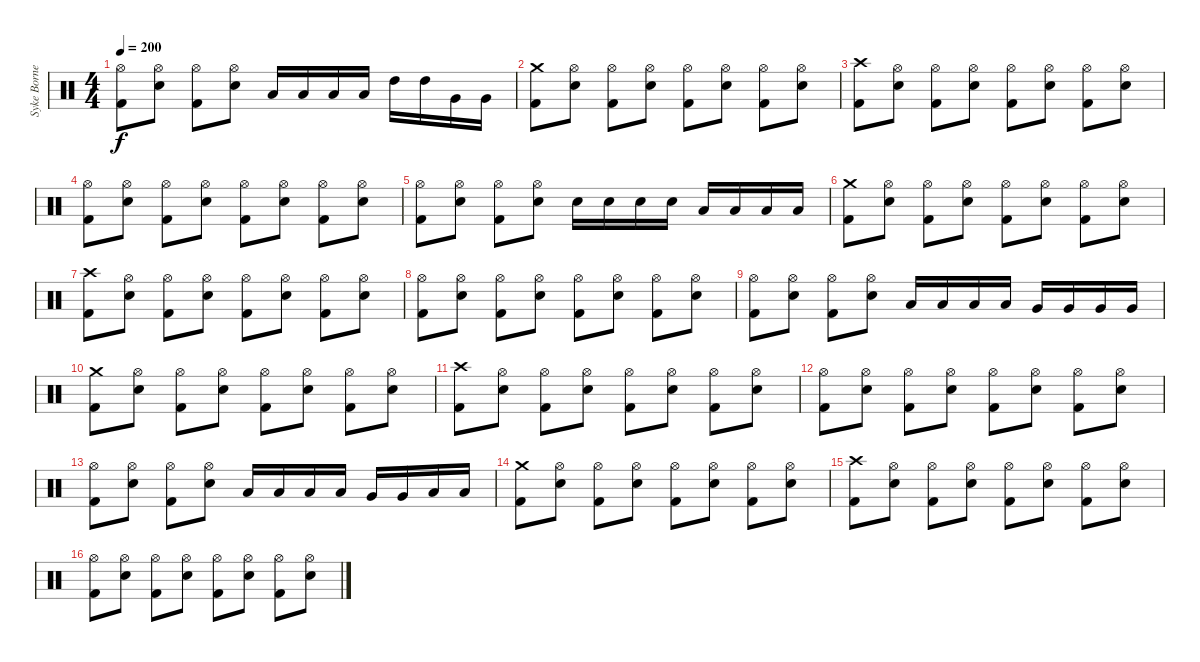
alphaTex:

\track ("Syke Bornetto (Drums)" "Syke Borne") {instrument percussion}
\staff {score}
\articulation defaults
\ts (4 4)
\tempo 200
\clef neutral
\ks c
("Hi-Hat (open)" "Kick (hit) 2").8{dy f} ("Hi-Hat (open)" "Electric Snare (hit)").8 ("Hi-Hat (open)" "Kick (hit) 2").8 ("Hi-Hat (open)" "Electric Snare (hit)").8 "Low Floor Tom (hit)".16 "Low Floor Tom (hit)".16 "Low Tom (hit)".16 "Low Tom (hit)".16 "High Tom (hit)".16 "High Tom (hit)".16 "Very Low Tom (hit)".16 "Very Low Tom (hit)".16 |
("Crash medium (hit)" "Kick (hit) 2").8 ("Hi-Hat (open)" "Electric Snare (hit)").8 ("Hi-Hat (open)" "Kick (hit) 2").8 ("Hi-Hat (open)" "Electric Snare (hit)").8 ("Hi-Hat (open)" "Kick (hit) 2").8 ("Hi-Hat (open)" "Electric Snare (hit)").8 ("Hi-Hat (open)" "Kick (hit) 2").8 ("Hi-Hat (open)" "Electric Snare (hit)").8 |
("Crash high (hit)" "Kick (hit) 2").8 ("Hi-Hat (open)" "Electric Snare (hit)").8 ("Hi-Hat (open)" "Kick (hit) 2").8 ("Hi-Hat (open)" "Electric Snare (hit)").8 ("Hi-Hat (open)" "Kick (hit) 2").8 ("Hi-Hat (open)" "Electric Snare (hit)").8 ("Hi-Hat (open)" "Kick (hit) 2").8 ("Hi-Hat (open)" "Electric Snare (hit)").8 |
("Hi-Hat (open)" "Kick (hit) 2").8 ("Hi-Hat (open)" "Electric Snare (hit)").8 ("Hi-Hat (open)" "Kick (hit) 2").8 ("Hi-Hat (open)" "Electric Snare (hit)").8 ("Hi-Hat (open)" "Kick (hit) 2").8 ("Hi-Hat (open)" "Electric Snare (hit)").8 ("Hi-Hat (open)" "Kick (hit) 2").8 ("Hi-Hat (open)" "Electric Snare (hit)").8 |
("Hi-Hat (open)" "Kick (hit) 2").8 ("Hi-Hat (open)" "Electric Snare (hit)").8 ("Hi-Hat (open)" "Kick (hit) 2").8 ("Hi-Hat (open)" "Electric Snare (hit)").8 "Electric Snare (hit)".16 "Electric Snare (hit)".16 "Electric Snare (hit)".16 "Electric Snare (hit)".16 "Low Floor Tom (hit)".16 "Low Floor Tom (hit)".16 "Low Floor Tom (hit)".16 "Low Floor Tom (hit)".16 |
("Crash medium (hit)" "Kick (hit) 2").8 ("Hi-Hat (open)" "Electric Snare (hit)").8 ("Hi-Hat (open)" "Kick (hit) 2").8 ("Hi-Hat (open)" "Electric Snare (hit)").8 ("Hi-Hat (open)" "Kick (hit) 2").8 ("Hi-Hat (open)" "Electric Snare (hit)").8 ("Hi-Hat (open)" "Kick (hit) 2").8 ("Hi-Hat (open)" "Electric Snare (hit)").8 |
("Crash high (hit)" "Kick (hit) 2").8 ("Hi-Hat (open)" "Electric Snare (hit)").8 ("Hi-Hat (open)" "Kick (hit) 2").8 ("Hi-Hat (open)" "Electric Snare (hit)").8 ("Hi-Hat (open)" "Kick (hit) 2").8 ("Hi-Hat (open)" "Electric Snare (hit)").8 ("Hi-Hat (open)" "Kick (hit) 2").8 ("Hi-Hat (open)" "Electric Snare (hit)").8 |
("Hi-Hat (open)" "Kick (hit) 2").8 ("Hi-Hat (open)" "Electric Snare (hit)").8 ("Hi-Hat (open)" "Kick (hit) 2").8 ("Hi-Hat (open)" "Electric Snare (hit)").8 ("Hi-Hat (open)" "Kick (hit) 2").8 ("Hi-Hat (open)" "Electric Snare (hit)").8 ("Hi-Hat (open)" "Kick (hit) 2").8 ("Hi-Hat (open)" "Electric Snare (hit)").8 |
("Hi-Hat (open)" "Kick (hit) 2").8 ("Hi-Hat (open)" "Electric Snare (hit)").8 ("Hi-Hat (open)" "Kick (hit) 2").8 ("Hi-Hat (open)" "Electric Snare (hit)").8 "Low Tom (hit)".16 "Low Tom (hit)".16 "Low Tom (hit)".16 "Low Tom (hit)".16 "Very Low Tom (hit)".16 "Very Low Tom (hit)".16 "Very Low Tom (hit)".16 "Very Low Tom (hit)".16 |
("Crash medium (hit)" "Kick (hit) 2").8 ("Hi-Hat (open)" "Electric Snare (hit)").8 ("Hi-Hat (open)" "Kick (hit) 2").8 ("Hi-Hat (open)" "Electric Snare (hit)").8 ("Hi-Hat (open)" "Kick (hit) 2").8 ("Hi-Hat (open)" "Electric Snare (hit)").8 ("Hi-Hat (open)" "Kick (hit) 2").8 ("Hi-Hat (open)" "Electric Snare (hit)").8 |
("Crash high (hit)" "Kick (hit) 2").8 ("Hi-Hat (open)" "Electric Snare (hit)").8 ("Hi-Hat (open)" "Kick (hit) 2").8 ("Hi-Hat (open)" "Electric Snare (hit)").8 ("Hi-Hat (open)" "Kick (hit) 2").8 ("Hi-Hat (open)" "Electric Snare (hit)").8 ("Hi-Hat (open)" "Kick (hit) 2").8 ("Hi-Hat (open)" "Electric Snare (hit)").8 |
("Hi-Hat (open)" "Kick (hit) 2").8 ("Hi-Hat (open)" "Electric Snare (hit)").8 ("Hi-Hat (open)" "Kick (hit) 2").8 ("Hi-Hat (open)" "Electric Snare (hit)").8 ("Hi-Hat (open)" "Kick (hit) 2").8 ("Hi-Hat (open)" "Electric Snare (hit)").8 ("Hi-Hat (open)" "Kick (hit) 2").8 ("Hi-Hat (open)" "Electric Snare (hit)").8 |
("Hi-Hat (open)" "Kick (hit) 2").8 ("Hi-Hat (open)" "Electric Snare (hit)").8 ("Hi-Hat (open)" "Kick (hit) 2").8 ("Hi-Hat (open)" "Electric Snare (hit)").8 "Low Floor Tom (hit)".16 "Low Floor Tom (hit)".16 "Low Floor Tom (hit)".16 "Low Floor Tom (hit)".16 "Very Low Tom (hit)".16 "Very Low Tom (hit)".16 "Low Tom (hit)".16 "Low Tom (hit)".16 |
("Crash medium (hit)" "Kick (hit) 2").8 ("Hi-Hat (open)" "Electric Snare (hit)").8 ("Hi-Hat (open)" "Kick (hit) 2").8 ("Hi-Hat (open)" "Electric Snare (hit)").8 ("Hi-Hat (open)" "Kick (hit) 2").8 ("Hi-Hat (open)" "Electric Snare (hit)").8 ("Hi-Hat (open)" "Kick (hit) 2").8 ("Hi-Hat (open)" "Electric Snare (hit)").8 |
("Crash high (hit)" "Kick (hit) 2").8 ("Hi-Hat (open)" "Electric Snare (hit)").8 ("Hi-Hat (open)" "Kick (hit) 2").8 ("Hi-Hat (open)" "Electric Snare (hit)").8 ("Hi-Hat (open)" "Kick (hit) 2").8 ("Hi-Hat (open)" "Electric Snare (hit)").8 ("Hi-Hat (open)" "Kick (hit) 2").8 ("Hi-Hat (open)" "Electric Snare (hit)").8 |
("Hi-Hat (open)" "Kick (hit) 2").8 ("Hi-Hat (open)" "Electric Snare (hit)").8 ("Hi-Hat (open)" "Kick (hit) 2").8 ("Hi-Hat (open)" "Electric Snare (hit)").8 ("Hi-Hat (open)" "Kick (hit) 2").8 ("Hi-Hat (open)" "Electric Snare (hit)").8 ("Hi-Hat (open)" "Kick (hit) 2").8 ("Hi-Hat (open)" "Electric Snare (hit)").8
